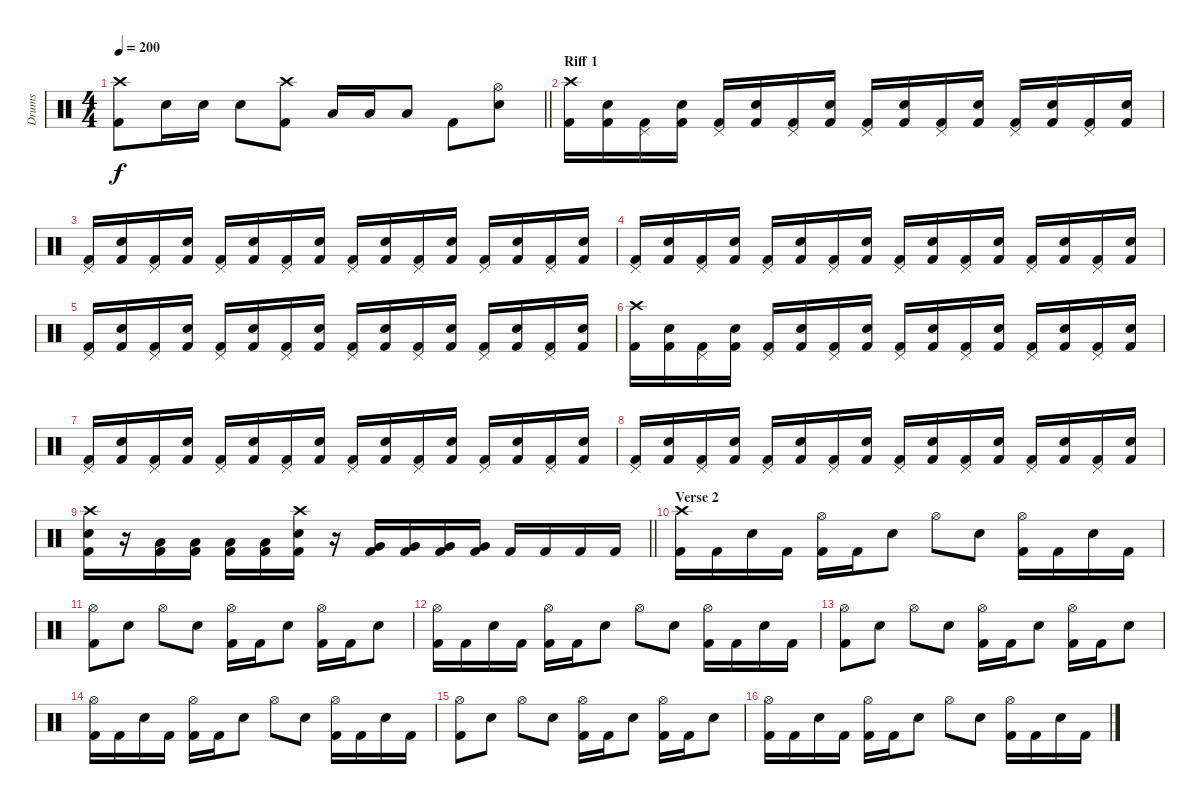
\track ("Drums" "Drums") {instrument percussion}
\staff {score}
\articulation defaults
\ts (4 4)
\tempo 200
\clef neutral
\barLineRight lightlight
\ks c
("Crash high (hit)" "Kick (hit) 2").8{dy f} "Snare (hit) 2".16 "Snare (hit) 2".16 "Snare (hit) 2".8 ("Crash high (hit)" "Kick (hit) 2").8 "Low Tom (hit)".16 "Low Tom (hit)".16 "Low Tom (hit)".8 "Kick (hit) 2".8 ("Hi-Hat (open)" "Snare (hit) 2").8 |
\section ("" "Riff 1")
("Crash high (hit)" "Kick (hit) 2").16 ("Snare (hit) 2" "Kick (hit) 2").16 ("Pedal Hi-Hat (hit)" "Kick (hit) 2").16 ("Snare (hit) 2" "Kick (hit) 2").16 ("Pedal Hi-Hat (hit)" "Kick (hit) 2").16 ("Snare (hit) 2" "Kick (hit) 2").16 ("Pedal Hi-Hat (hit)" "Kick (hit) 2").16 ("Snare (hit) 2" "Kick (hit) 2").16 ("Pedal Hi-Hat (hit)" "Kick (hit) 2").16 ("Snare (hit) 2" "Kick (hit) 2").16 ("Pedal Hi-Hat (hit)" "Kick (hit) 2").16 ("Snare (hit) 2" "Kick (hit) 2").16 ("Pedal Hi-Hat (hit)" "Kick (hit) 2").16 ("Snare (hit) 2" "Kick (hit) 2").16 ("Pedal Hi-Hat (hit)" "Kick (hit) 2").16 ("Snare (hit) 2" "Kick (hit) 2").16 |
("Pedal Hi-Hat (hit)" "Kick (hit) 2").16 ("Snare (hit) 2" "Kick (hit) 2").16 ("Pedal Hi-Hat (hit)" "Kick (hit) 2").16 ("Snare (hit) 2" "Kick (hit) 2").16 ("Pedal Hi-Hat (hit)" "Kick (hit) 2").16 ("Snare (hit) 2" "Kick (hit) 2").16 ("Pedal Hi-Hat (hit)" "Kick (hit) 2").16 ("Snare (hit) 2" "Kick (hit) 2").16 ("Pedal Hi-Hat (hit)" "Kick (hit) 2").16 ("Snare (hit) 2" "Kick (hit) 2").16 ("Pedal Hi-Hat (hit)" "Kick (hit) 2").16 ("Snare (hit) 2" "Kick (hit) 2").16 ("Pedal Hi-Hat (hit)" "Kick (hit) 2").16 ("Snare (hit) 2" "Kick (hit) 2").16 ("Pedal Hi-Hat (hit)" "Kick (hit) 2").16 ("Snare (hit) 2" "Kick (hit) 2").16 |
("Pedal Hi-Hat (hit)" "Kick (hit) 2").16 ("Snare (hit) 2" "Kick (hit) 2").16 ("Pedal Hi-Hat (hit)" "Kick (hit) 2").16 ("Snare (hit) 2" "Kick (hit) 2").16 ("Pedal Hi-Hat (hit)" "Kick (hit) 2").16 ("Snare (hit) 2" "Kick (hit) 2").16 ("Pedal Hi-Hat (hit)" "Kick (hit) 2").16 ("Snare (hit) 2" "Kick (hit) 2").16 ("Pedal Hi-Hat (hit)" "Kick (hit) 2").16 ("Snare (hit) 2" "Kick (hit) 2").16 ("Pedal Hi-Hat (hit)" "Kick (hit) 2").16 ("Snare (hit) 2" "Kick (hit) 2").16 ("Pedal Hi-Hat (hit)" "Kick (hit) 2").16 ("Snare (hit) 2" "Kick (hit) 2").16 ("Pedal Hi-Hat (hit)" "Kick (hit) 2").16 ("Snare (hit) 2" "Kick (hit) 2").16 |
("Pedal Hi-Hat (hit)" "Kick (hit) 2").16 ("Snare (hit) 2" "Kick (hit) 2").16 ("Pedal Hi-Hat (hit)" "Kick (hit) 2").16 ("Snare (hit) 2" "Kick (hit) 2").16 ("Pedal Hi-Hat (hit)" "Kick (hit) 2").16 ("Snare (hit) 2" "Kick (hit) 2").16 ("Pedal Hi-Hat (hit)" "Kick (hit) 2").16 ("Snare (hit) 2" "Kick (hit) 2").16 ("Pedal Hi-Hat (hit)" "Kick (hit) 2").16 ("Snare (hit) 2" "Kick (hit) 2").16 ("Pedal Hi-Hat (hit)" "Kick (hit) 2").16 ("Snare (hit) 2" "Kick (hit) 2").16 ("Pedal Hi-Hat (hit)" "Kick (hit) 2").16 ("Snare (hit) 2" "Kick (hit) 2").16 ("Pedal Hi-Hat (hit)" "Kick (hit) 2").16 ("Snare (hit) 2" "Kick (hit) 2").16 |
("Crash high (hit)" "Kick (hit) 2").16 ("Snare (hit) 2" "Kick (hit) 2").16 ("Pedal Hi-Hat (hit)" "Kick (hit) 2").16 ("Snare (hit) 2" "Kick (hit) 2").16 ("Pedal Hi-Hat (hit)" "Kick (hit) 2").16 ("Snare (hit) 2" "Kick (hit) 2").16 ("Pedal Hi-Hat (hit)" "Kick (hit) 2").16 ("Snare (hit) 2" "Kick (hit) 2").16 ("Pedal Hi-Hat (hit)" "Kick (hit) 2").16 ("Snare (hit) 2" "Kick (hit) 2").16 ("Pedal Hi-Hat (hit)" "Kick (hit) 2").16 ("Snare (hit) 2" "Kick (hit) 2").16 ("Pedal Hi-Hat (hit)" "Kick (hit) 2").16 ("Snare (hit) 2" "Kick (hit) 2").16 ("Pedal Hi-Hat (hit)" "Kick (hit) 2").16 ("Snare (hit) 2" "Kick (hit) 2").16 |
("Pedal Hi-Hat (hit)" "Kick (hit) 2").16 ("Snare (hit) 2" "Kick (hit) 2").16 ("Pedal Hi-Hat (hit)" "Kick (hit) 2").16 ("Snare (hit) 2" "Kick (hit) 2").16 ("Pedal Hi-Hat (hit)" "Kick (hit) 2").16 ("Snare (hit) 2" "Kick (hit) 2").16 ("Pedal Hi-Hat (hit)" "Kick (hit) 2").16 ("Snare (hit) 2" "Kick (hit) 2").16 ("Pedal Hi-Hat (hit)" "Kick (hit) 2").16 ("Snare (hit) 2" "Kick (hit) 2").16 ("Pedal Hi-Hat (hit)" "Kick (hit) 2").16 ("Snare (hit) 2" "Kick (hit) 2").16 ("Pedal Hi-Hat (hit)" "Kick (hit) 2").16 ("Snare (hit) 2" "Kick (hit) 2").16 ("Pedal Hi-Hat (hit)" "Kick (hit) 2").16 ("Snare (hit) 2" "Kick (hit) 2").16 |
("Pedal Hi-Hat (hit)" "Kick (hit) 2").16 ("Snare (hit) 2" "Kick (hit) 2").16 ("Pedal Hi-Hat (hit)" "Kick (hit) 2").16 ("Snare (hit) 2" "Kick (hit) 2").16 ("Pedal Hi-Hat (hit)" "Kick (hit) 2").16 ("Snare (hit) 2" "Kick (hit) 2").16 ("Pedal Hi-Hat (hit)" "Kick (hit) 2").16 ("Snare (hit) 2" "Kick (hit) 2").16 ("Pedal Hi-Hat (hit)" "Kick (hit) 2").16 ("Snare (hit) 2" "Kick (hit) 2").16 ("Pedal Hi-Hat (hit)" "Kick (hit) 2").16 ("Snare (hit) 2" "Kick (hit) 2").16 ("Pedal Hi-Hat (hit)" "Kick (hit) 2").16 ("Snare (hit) 2" "Kick (hit) 2").16 ("Pedal Hi-Hat (hit)" "Kick (hit) 2").16 ("Snare (hit) 2" "Kick (hit) 2").16 |
\barLineRight lightlight
("Crash high (hit)" "Snare (hit) 2" "Kick (hit) 2").16 r.16 ("Low Tom (hit)" "Kick (hit) 2").16 ("Low Tom (hit)" "Kick (hit) 2").16 ("Low Tom (hit)" "Kick (hit) 2").16 ("Low Tom (hit)" "Kick (hit) 2").16 ("Crash high (hit)" "Snare (hit) 2" "Kick (hit) 2").16 r.16 ("Very Low Tom (hit)" "Kick (hit) 2").16 ("Very Low Tom (hit)" "Kick (hit) 2").16 ("Very Low Tom (hit)" "Kick (hit) 2").16 ("Very Low Tom (hit)" "Kick (hit) 2").16 "Kick (hit) 2".16 "Kick (hit) 2".16 "Kick (hit) 2".16 "Kick (hit) 2".16 |
\section ("" "Verse 2")
("Crash high (hit)" "Kick (hit) 2").16 "Kick (hit) 2".16 "Snare (hit) 2".16 "Kick (hit) 2".16 ("Hi-Hat (open)" "Kick (hit) 2").16 "Kick (hit) 2".16 "Snare (hit) 2".8 "Hi-Hat (open)".8 "Snare (hit) 2".8 ("Hi-Hat (open)" "Kick (hit) 2").16 "Kick (hit) 2".16 "Snare (hit) 2".16 "Kick (hit) 2".16 |
("Hi-Hat (open)" "Kick (hit) 2").8 "Snare (hit) 2".8 "Hi-Hat (open)".8 "Snare (hit) 2".8 ("Hi-Hat (open)" "Kick (hit) 2").16 "Kick (hit) 2".16 "Snare (hit) 2".8 ("Hi-Hat (open)" "Kick (hit) 2").16 "Kick (hit) 2".16 "Snare (hit) 2".8 |
("Hi-Hat (open)" "Kick (hit) 2").16 "Kick (hit) 2".16 "Snare (hit) 2".16 "Kick (hit) 2".16 ("Hi-Hat (open)" "Kick (hit) 2").16 "Kick (hit) 2".16 "Snare (hit) 2".8 "Hi-Hat (open)".8 "Snare (hit) 2".8 ("Hi-Hat (open)" "Kick (hit) 2").16 "Kick (hit) 2".16 "Snare (hit) 2".16 "Kick (hit) 2".16 |
("Hi-Hat (open)" "Kick (hit) 2").8 "Snare (hit) 2".8 "Hi-Hat (open)".8 "Snare (hit) 2".8 ("Hi-Hat (open)" "Kick (hit) 2").16 "Kick (hit) 2".16 "Snare (hit) 2".8 ("Hi-Hat (open)" "Kick (hit) 2").16 "Kick (hit) 2".16 "Snare (hit) 2".8 |
("Hi-Hat (open)" "Kick (hit) 2").16 "Kick (hit) 2".16 "Snare (hit) 2".16 "Kick (hit) 2".16 ("Hi-Hat (open)" "Kick (hit) 2").16 "Kick (hit) 2".16 "Snare (hit) 2".8 "Hi-Hat (open)".8 "Snare (hit) 2".8 ("Hi-Hat (open)" "Kick (hit) 2").16 "Kick (hit) 2".16 "Snare (hit) 2".16 "Kick (hit) 2".16 |
("Hi-Hat (open)" "Kick (hit) 2").8 "Snare (hit) 2".8 "Hi-Hat (open)".8 "Snare (hit) 2".8 ("Hi-Hat (open)" "Kick (hit) 2").16 "Kick (hit) 2".16 "Snare (hit) 2".8 ("Hi-Hat (open)" "Kick (hit) 2").16 "Kick (hit) 2".16 "Snare (hit) 2".8 |
("Hi-Hat (open)" "Kick (hit) 2").16 "Kick (hit) 2".16 "Snare (hit) 2".16 "Kick (hit) 2".16 ("Hi-Hat (open)" "Kick (hit) 2").16 "Kick (hit) 2".16 "Snare (hit) 2".8 "Hi-Hat (open)".8 "Snare (hit) 2".8 ("Hi-Hat (open)" "Kick (hit) 2").16 "Kick (hit) 2".16 "Snare (hit) 2".16 "Kick (hit) 2".16
